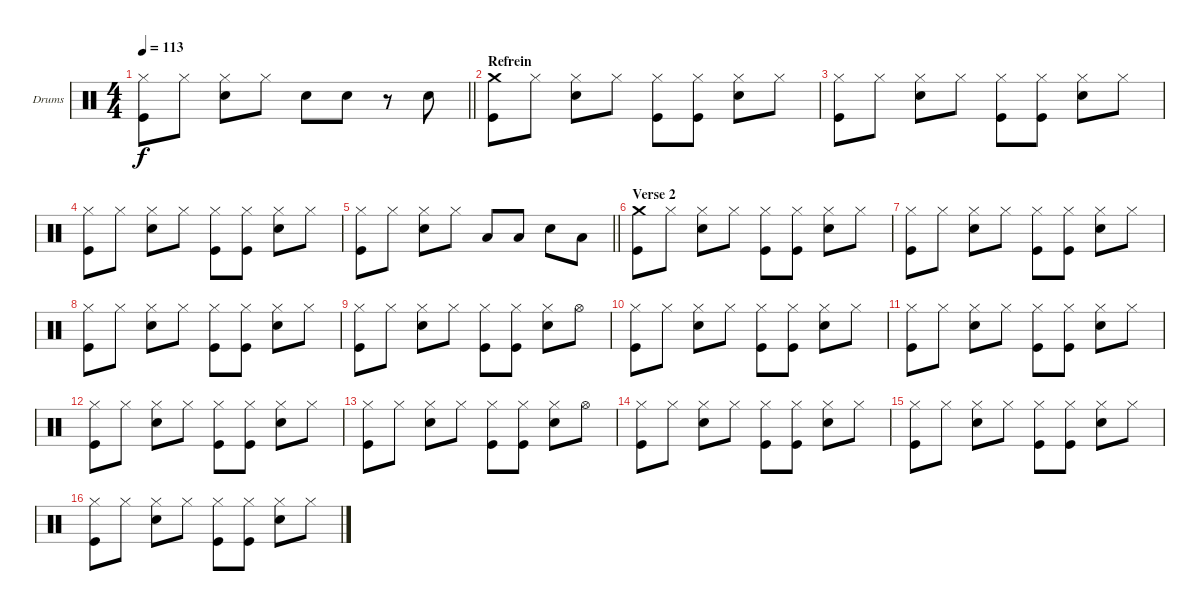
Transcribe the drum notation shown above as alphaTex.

\bracketExtendMode groupsimilarinstruments
\firstSystemTrackNameOrientation horizontal
\otherSystemsTrackNameOrientation horizontal
\track ("Drumkit" "Drums") {instrument percussion}
\staff {score}
\articulation defaults
\ts (4 4)
\tempo 113
\clef neutral
\barLineRight lightlight
\ks c
("Hi-Hat (closed)" "Kick (hit)").8{dy f} "Hi-Hat (closed)".8 ("Hi-Hat (closed)" "Snare (hit) 2").8 "Hi-Hat (closed)".8 "Snare (hit) 2".8 "Snare (hit) 2".8 r.8 "Snare (hit) 2".8 |
\section ("" "Refrein")
("Crash medium (hit)" "Kick (hit)").8 "Hi-Hat (closed)".8 ("Hi-Hat (closed)" "Snare (hit) 2").8 "Hi-Hat (closed)".8 ("Hi-Hat (closed)" "Kick (hit)").8 ("Hi-Hat (closed)" "Kick (hit)").8 ("Hi-Hat (closed)" "Snare (hit) 2").8 "Hi-Hat (closed)".8 |
("Hi-Hat (closed)" "Kick (hit)").8 "Hi-Hat (closed)".8 ("Hi-Hat (closed)" "Snare (hit) 2").8 "Hi-Hat (closed)".8 ("Hi-Hat (closed)" "Kick (hit)").8 ("Hi-Hat (closed)" "Kick (hit)").8 ("Hi-Hat (closed)" "Snare (hit) 2").8 "Hi-Hat (closed)".8 |
("Hi-Hat (closed)" "Kick (hit)").8 "Hi-Hat (closed)".8 ("Hi-Hat (closed)" "Snare (hit) 2").8 "Hi-Hat (closed)".8 ("Hi-Hat (closed)" "Kick (hit)").8 ("Hi-Hat (closed)" "Kick (hit)").8 ("Hi-Hat (closed)" "Snare (hit) 2").8 "Hi-Hat (closed)".8 |
\barLineRight lightlight
("Hi-Hat (closed)" "Kick (hit)").8 "Hi-Hat (closed)".8 ("Hi-Hat (closed)" "Snare (hit) 2").8 "Hi-Hat (closed)".8 "Low Tom (hit)".8 "Low Tom (hit)".8 "Snare (hit) 2".8 "Low Tom (hit)".8 |
\section ("" "Verse 2")
("Crash medium (hit)" "Kick (hit)").8 "Hi-Hat (closed)".8 ("Hi-Hat (closed)" "Snare (hit) 2").8 "Hi-Hat (closed)".8 ("Hi-Hat (closed)" "Kick (hit)").8 ("Hi-Hat (closed)" "Kick (hit)").8 ("Hi-Hat (closed)" "Snare (hit) 2").8 "Hi-Hat (closed)".8 |
("Hi-Hat (closed)" "Kick (hit)").8 "Hi-Hat (closed)".8 ("Hi-Hat (closed)" "Snare (hit) 2").8 "Hi-Hat (closed)".8 ("Hi-Hat (closed)" "Kick (hit)").8 ("Hi-Hat (closed)" "Kick (hit)").8 ("Hi-Hat (closed)" "Snare (hit) 2").8 "Hi-Hat (closed)".8 |
("Hi-Hat (closed)" "Kick (hit)").8 "Hi-Hat (closed)".8 ("Hi-Hat (closed)" "Snare (hit) 2").8 "Hi-Hat (closed)".8 ("Hi-Hat (closed)" "Kick (hit)").8 ("Hi-Hat (closed)" "Kick (hit)").8 ("Hi-Hat (closed)" "Snare (hit) 2").8 "Hi-Hat (closed)".8 |
("Hi-Hat (closed)" "Kick (hit)").8 "Hi-Hat (closed)".8 ("Hi-Hat (closed)" "Snare (hit) 2").8 "Hi-Hat (closed)".8 ("Hi-Hat (closed)" "Kick (hit)").8 ("Hi-Hat (closed)" "Kick (hit)").8 ("Hi-Hat (closed)" "Snare (hit) 2").8 "Hi-Hat (open)".8 |
("Hi-Hat (closed)" "Kick (hit)").8 "Hi-Hat (closed)".8 ("Hi-Hat (closed)" "Snare (hit) 2").8 "Hi-Hat (closed)".8 ("Hi-Hat (closed)" "Kick (hit)").8 ("Hi-Hat (closed)" "Kick (hit)").8 ("Hi-Hat (closed)" "Snare (hit) 2").8 "Hi-Hat (closed)".8 |
("Hi-Hat (closed)" "Kick (hit)").8 "Hi-Hat (closed)".8 ("Hi-Hat (closed)" "Snare (hit) 2").8 "Hi-Hat (closed)".8 ("Hi-Hat (closed)" "Kick (hit)").8 ("Hi-Hat (closed)" "Kick (hit)").8 ("Hi-Hat (closed)" "Snare (hit) 2").8 "Hi-Hat (closed)".8 |
("Hi-Hat (closed)" "Kick (hit)").8 "Hi-Hat (closed)".8 ("Hi-Hat (closed)" "Snare (hit) 2").8 "Hi-Hat (closed)".8 ("Hi-Hat (closed)" "Kick (hit)").8 ("Hi-Hat (closed)" "Kick (hit)").8 ("Hi-Hat (closed)" "Snare (hit) 2").8 "Hi-Hat (closed)".8 |
("Hi-Hat (closed)" "Kick (hit)").8 "Hi-Hat (closed)".8 ("Hi-Hat (closed)" "Snare (hit) 2").8 "Hi-Hat (closed)".8 ("Hi-Hat (closed)" "Kick (hit)").8 ("Hi-Hat (closed)" "Kick (hit)").8 ("Hi-Hat (closed)" "Snare (hit) 2").8 "Hi-Hat (open)".8 |
("Hi-Hat (closed)" "Kick (hit)").8 "Hi-Hat (closed)".8 ("Hi-Hat (closed)" "Snare (hit) 2").8 "Hi-Hat (closed)".8 ("Hi-Hat (closed)" "Kick (hit)").8 ("Hi-Hat (closed)" "Kick (hit)").8 ("Hi-Hat (closed)" "Snare (hit) 2").8 "Hi-Hat (closed)".8 |
("Hi-Hat (closed)" "Kick (hit)").8 "Hi-Hat (closed)".8 ("Hi-Hat (closed)" "Snare (hit) 2").8 "Hi-Hat (closed)".8 ("Hi-Hat (closed)" "Kick (hit)").8 ("Hi-Hat (closed)" "Kick (hit)").8 ("Hi-Hat (closed)" "Snare (hit) 2").8 "Hi-Hat (closed)".8 |
("Hi-Hat (closed)" "Kick (hit)").8 "Hi-Hat (closed)".8 ("Hi-Hat (closed)" "Snare (hit) 2").8 "Hi-Hat (closed)".8 ("Hi-Hat (closed)" "Kick (hit)").8 ("Hi-Hat (closed)" "Kick (hit)").8 ("Hi-Hat (closed)" "Snare (hit) 2").8 "Hi-Hat (closed)".8
